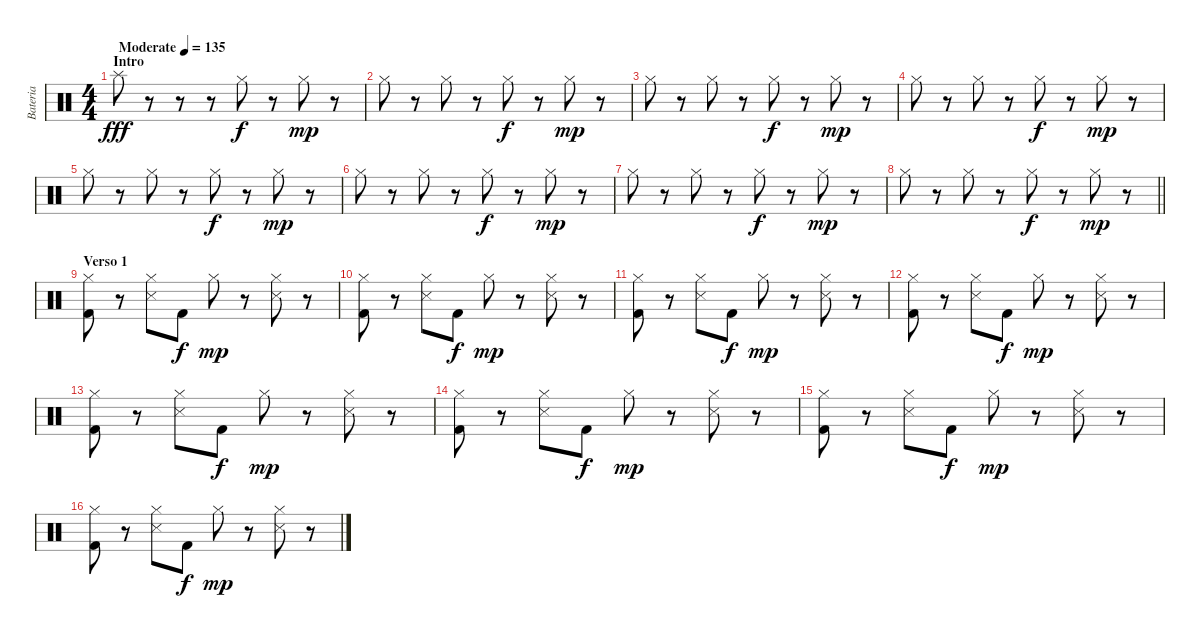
\track ("Bateria" "Bateria") {instrument percussion}
\staff {score}
\articulation defaults
\ts (4 4)
\section ("" "Intro")
\tempo (135 "Moderate")
\clef neutral
\ks c "Splash (hit)".8{dy fff}
r.8 r.8 r.8 "Hi-Hat (closed)".8{dy f} r.8 "Hi-Hat (closed)".8{dy mp} r.8 |
"Hi-Hat (closed)".8 r.8 "Hi-Hat (closed)".8 r.8 "Hi-Hat (closed)".8{dy f} r.8 "Hi-Hat (closed)".8{dy mp} r.8 |
"Hi-Hat (closed)".8 r.8 "Hi-Hat (closed)".8 r.8 "Hi-Hat (closed)".8{dy f} r.8 "Hi-Hat (closed)".8{dy mp} r.8 |
"Hi-Hat (closed)".8 r.8 "Hi-Hat (closed)".8 r.8 "Hi-Hat (closed)".8{dy f} r.8 "Hi-Hat (closed)".8{dy mp} r.8 |
"Hi-Hat (closed)".8 r.8 "Hi-Hat (closed)".8 r.8 "Hi-Hat (closed)".8{dy f} r.8 "Hi-Hat (closed)".8{dy mp} r.8 |
"Hi-Hat (closed)".8 r.8 "Hi-Hat (closed)".8 r.8 "Hi-Hat (closed)".8{dy f} r.8 "Hi-Hat (closed)".8{dy mp} r.8 |
"Hi-Hat (closed)".8 r.8 "Hi-Hat (closed)".8 r.8 "Hi-Hat (closed)".8{dy f} r.8 "Hi-Hat (closed)".8{dy mp} r.8 |
\barLineRight lightlight "Hi-Hat (closed)".8
r.8 "Hi-Hat (closed)".8 r.8 "Hi-Hat (closed)".8{dy f} r.8 "Hi-Hat (closed)".8{dy mp} r.8 |
\section ("" "Verso 1")
("Hi-Hat (closed)" "Kick (hit) 2").8 r.8 ("Hi-Hat (closed)" "Snare (side stick) 3").8 "Kick (hit) 2".8{dy f} "Hi-Hat (closed)".8{dy mp} r.8 ("Hi-Hat (closed)" "Snare (side stick) 3").8 r.8 |
("Hi-Hat (closed)" "Kick (hit) 2").8 r.8 ("Hi-Hat (closed)" "Snare (side stick) 3").8 "Kick (hit) 2".8{dy f} "Hi-Hat (closed)".8{dy mp} r.8 ("Hi-Hat (closed)" "Snare (side stick) 3").8 r.8 |
("Hi-Hat (closed)" "Kick (hit) 2").8 r.8 ("Hi-Hat (closed)" "Snare (side stick) 3").8 "Kick (hit) 2".8{dy f} "Hi-Hat (closed)".8{dy mp} r.8 ("Hi-Hat (closed)" "Snare (side stick) 3").8 r.8 |
("Hi-Hat (closed)" "Kick (hit) 2").8 r.8 ("Hi-Hat (closed)" "Snare (side stick) 3").8 "Kick (hit) 2".8{dy f} "Hi-Hat (closed)".8{dy mp} r.8 ("Hi-Hat (closed)" "Snare (side stick) 3").8 r.8 |
("Hi-Hat (closed)" "Kick (hit) 2").8 r.8 ("Hi-Hat (closed)" "Snare (side stick) 3").8 "Kick (hit) 2".8{dy f} "Hi-Hat (closed)".8{dy mp} r.8 ("Hi-Hat (closed)" "Snare (side stick) 3").8 r.8 |
("Hi-Hat (closed)" "Kick (hit) 2").8 r.8 ("Hi-Hat (closed)" "Snare (side stick) 3").8 "Kick (hit) 2".8{dy f} "Hi-Hat (closed)".8{dy mp} r.8 ("Hi-Hat (closed)" "Snare (side stick) 3").8 r.8 |
("Hi-Hat (closed)" "Kick (hit) 2").8 r.8 ("Hi-Hat (closed)" "Snare (side stick) 3").8 "Kick (hit) 2".8{dy f} "Hi-Hat (closed)".8{dy mp} r.8 ("Hi-Hat (closed)" "Snare (side stick) 3").8 r.8 |
("Hi-Hat (closed)" "Kick (hit) 2").8 r.8 ("Hi-Hat (closed)" "Snare (side stick) 3").8 "Kick (hit) 2".8{dy f} "Hi-Hat (closed)".8{dy mp} r.8 ("Hi-Hat (closed)" "Snare (side stick) 3").8 r.8
